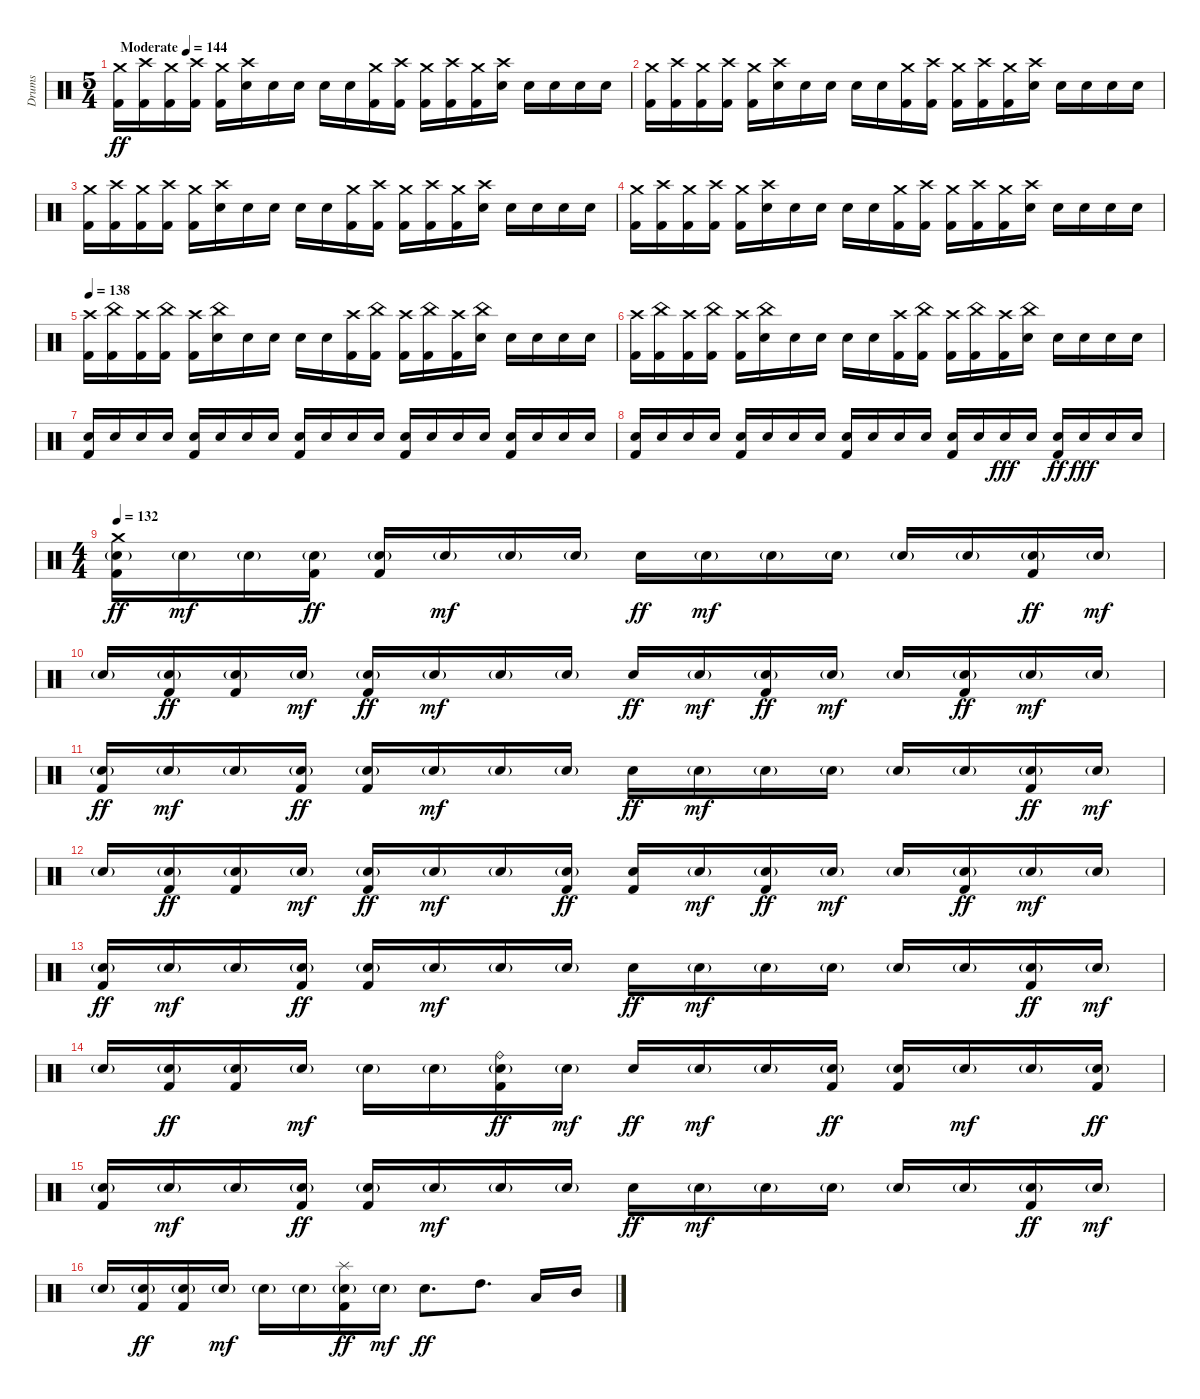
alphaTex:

\track ("Drums" "Drums") {instrument percussion}
\staff {score}
\articulation defaults
\ts (5 4)
\tempo (144 "Moderate")
\clef neutral
\ks c
("Crash medium (hit)" "Kick (hit) 2").16{dy ff} ("Crash high (hit)" "Kick (hit) 2").16 ("Crash medium (hit)" "Kick (hit) 2").16 ("Crash high (hit)" "Kick (hit) 2").16 ("Crash medium (hit)" "Kick (hit) 2").16 ("Crash high (hit)" "Electric Snare (hit)").16 "Electric Snare (hit)".16 "Electric Snare (hit)".16 "Electric Snare (hit)".16 "Electric Snare (hit)".16 ("Crash medium (hit)" "Kick (hit) 2").16 ("Crash high (hit)" "Kick (hit) 2").16 ("Crash medium (hit)" "Kick (hit) 2").16 ("Crash high (hit)" "Kick (hit) 2").16 ("Crash medium (hit)" "Kick (hit) 2").16 ("Crash high (hit)" "Electric Snare (hit)").16 "Electric Snare (hit)".16 "Electric Snare (hit)".16 "Electric Snare (hit)".16 "Electric Snare (hit)".16 |
("Crash medium (hit)" "Kick (hit) 2").16 ("Crash high (hit)" "Kick (hit) 2").16 ("Crash medium (hit)" "Kick (hit) 2").16 ("Crash high (hit)" "Kick (hit) 2").16 ("Crash medium (hit)" "Kick (hit) 2").16 ("Crash high (hit)" "Electric Snare (hit)").16 "Electric Snare (hit)".16 "Electric Snare (hit)".16 "Electric Snare (hit)".16 "Electric Snare (hit)".16 ("Crash medium (hit)" "Kick (hit) 2").16 ("Crash high (hit)" "Kick (hit) 2").16 ("Crash medium (hit)" "Kick (hit) 2").16 ("Crash high (hit)" "Kick (hit) 2").16 ("Crash medium (hit)" "Kick (hit) 2").16 ("Crash high (hit)" "Electric Snare (hit)").16 "Electric Snare (hit)".16 "Electric Snare (hit)".16 "Electric Snare (hit)".16 "Electric Snare (hit)".16 |
("Crash medium (hit)" "Kick (hit) 2").16 ("Crash high (hit)" "Kick (hit) 2").16 ("Crash medium (hit)" "Kick (hit) 2").16 ("Crash high (hit)" "Kick (hit) 2").16 ("Crash medium (hit)" "Kick (hit) 2").16 ("Crash high (hit)" "Electric Snare (hit)").16 "Electric Snare (hit)".16 "Electric Snare (hit)".16 "Electric Snare (hit)".16 "Electric Snare (hit)".16 ("Crash medium (hit)" "Kick (hit) 2").16 ("Crash high (hit)" "Kick (hit) 2").16 ("Crash medium (hit)" "Kick (hit) 2").16 ("Crash high (hit)" "Kick (hit) 2").16 ("Crash medium (hit)" "Kick (hit) 2").16 ("Crash high (hit)" "Electric Snare (hit)").16 "Electric Snare (hit)".16 "Electric Snare (hit)".16 "Electric Snare (hit)".16 "Electric Snare (hit)".16 |
("Crash medium (hit)" "Kick (hit) 2").16 ("Crash high (hit)" "Kick (hit) 2").16 ("Crash medium (hit)" "Kick (hit) 2").16 ("Crash high (hit)" "Kick (hit) 2").16 ("Crash medium (hit)" "Kick (hit) 2").16 ("Crash high (hit)" "Electric Snare (hit)").16 "Electric Snare (hit)".16 "Electric Snare (hit)".16 "Electric Snare (hit)".16 "Electric Snare (hit)".16 ("Crash medium (hit)" "Kick (hit) 2").16 ("Crash high (hit)" "Kick (hit) 2").16 ("Crash medium (hit)" "Kick (hit) 2").16 ("Crash high (hit)" "Kick (hit) 2").16 ("Crash medium (hit)" "Kick (hit) 2").16 ("Crash high (hit)" "Electric Snare (hit)").16 "Electric Snare (hit)".16 "Electric Snare (hit)".16 "Electric Snare (hit)".16 "Electric Snare (hit)".16 |
\tempo 138
("Crash high (hit)" "Kick (hit) 2").16 ("China (hit)" "Kick (hit) 2").16 ("Crash high (hit)" "Kick (hit) 2").16 ("China (hit)" "Kick (hit) 2").16 ("Crash high (hit)" "Kick (hit) 2").16 ("China (hit)" "Electric Snare (hit)").16 "Electric Snare (hit)".16 "Electric Snare (hit)".16 "Electric Snare (hit)".16 "Electric Snare (hit)".16 ("Crash high (hit)" "Kick (hit) 2").16 ("China (hit)" "Kick (hit) 2").16 ("Crash high (hit)" "Kick (hit) 2").16 ("China (hit)" "Kick (hit) 2").16 ("Crash high (hit)" "Kick (hit) 2").16 ("China (hit)" "Electric Snare (hit)").16 "Electric Snare (hit)".16 "Electric Snare (hit)".16 "Electric Snare (hit)".16 "Electric Snare (hit)".16 |
("Crash high (hit)" "Kick (hit) 2").16 ("China (hit)" "Kick (hit) 2").16 ("Crash high (hit)" "Kick (hit) 2").16 ("China (hit)" "Kick (hit) 2").16 ("Crash high (hit)" "Kick (hit) 2").16 ("China (hit)" "Electric Snare (hit)").16 "Electric Snare (hit)".16 "Electric Snare (hit)".16 "Electric Snare (hit)".16 "Electric Snare (hit)".16 ("Crash high (hit)" "Kick (hit) 2").16 ("China (hit)" "Kick (hit) 2").16 ("Crash high (hit)" "Kick (hit) 2").16 ("China (hit)" "Kick (hit) 2").16 ("Crash high (hit)" "Kick (hit) 2").16 ("China (hit)" "Electric Snare (hit)").16 "Electric Snare (hit)".16 "Electric Snare (hit)".16 "Electric Snare (hit)".16 "Electric Snare (hit)".16 |
("Electric Snare (hit)" "Kick (hit) 2").16{volume 5} "Electric Snare (hit)".16{volume 13} "Electric Snare (hit)".16 "Electric Snare (hit)".16 ("Electric Snare (hit)" "Kick (hit) 2").16 "Electric Snare (hit)".16 "Electric Snare (hit)".16 "Electric Snare (hit)".16 ("Electric Snare (hit)" "Kick (hit) 2").16 "Electric Snare (hit)".16 "Electric Snare (hit)".16 "Electric Snare (hit)".16 ("Electric Snare (hit)" "Kick (hit) 2").16 "Electric Snare (hit)".16 "Electric Snare (hit)".16 "Electric Snare (hit)".16 ("Electric Snare (hit)" "Kick (hit) 2").16 "Electric Snare (hit)".16 "Electric Snare (hit)".16 "Electric Snare (hit)".16 |
("Electric Snare (hit)" "Kick (hit) 2").16 "Electric Snare (hit)".16 "Electric Snare (hit)".16 "Electric Snare (hit)".16 ("Electric Snare (hit)" "Kick (hit) 2").16 "Electric Snare (hit)".16 "Electric Snare (hit)".16 "Electric Snare (hit)".16 ("Electric Snare (hit)" "Kick (hit) 2").16 "Electric Snare (hit)".16 "Electric Snare (hit)".16 "Electric Snare (hit)".16 ("Electric Snare (hit)" "Kick (hit) 2").16 "Electric Snare (hit)".16 "Electric Snare (hit)".16{dy fff} "Electric Snare (hit)".16 ("Electric Snare (hit)" "Kick (hit) 2").16{dy ff} "Electric Snare (hit)".16{dy fff} "Electric Snare (hit)".16 "Electric Snare (hit)".16 |
\ts (4 4)
\tempo 132
("Crash medium (hit)" "Electric Snare (hit)"{g} "Kick (hit) 2").16{dy ff} "Electric Snare (hit)"{g}.16{dy mf} "Electric Snare (hit)"{g}.16 ("Electric Snare (hit)"{g} "Kick (hit) 2").16{dy ff} ("Electric Snare (hit)"{g} "Kick (hit) 2").16 "Electric Snare (hit)"{g}.16{dy mf} "Electric Snare (hit)"{g}.16 "Electric Snare (hit)"{g}.16 "Electric Snare (hit)".16{dy ff} "Electric Snare (hit)"{g}.16{dy mf} "Electric Snare (hit)"{g}.16 "Electric Snare (hit)"{g}.16 "Electric Snare (hit)"{g}.16 "Electric Snare (hit)"{g}.16 ("Electric Snare (hit)"{g} "Kick (hit) 2").16{dy ff} "Electric Snare (hit)"{g}.16{dy mf} |
"Electric Snare (hit)"{g}.16 ("Electric Snare (hit)"{g} "Kick (hit) 2").16{dy ff} ("Electric Snare (hit)"{g} "Kick (hit) 2").16 "Electric Snare (hit)"{g}.16{dy mf} ("Electric Snare (hit)"{g} "Kick (hit) 2").16{dy ff} "Electric Snare (hit)"{g}.16{dy mf} "Electric Snare (hit)"{g}.16 "Electric Snare (hit)"{g}.16 "Electric Snare (hit)".16{dy ff} "Electric Snare (hit)"{g}.16{dy mf} ("Electric Snare (hit)"{g} "Kick (hit) 2").16{dy ff} "Electric Snare (hit)"{g}.16{dy mf} "Electric Snare (hit)"{g}.16 ("Electric Snare (hit)"{g} "Kick (hit) 2").16{dy ff} "Electric Snare (hit)"{g}.16{dy mf} "Electric Snare (hit)"{g}.16 |
("Electric Snare (hit)"{g} "Kick (hit) 2").16{dy ff} "Electric Snare (hit)"{g}.16{dy mf} "Electric Snare (hit)"{g}.16 ("Electric Snare (hit)"{g} "Kick (hit) 2").16{dy ff} ("Electric Snare (hit)"{g} "Kick (hit) 2").16 "Electric Snare (hit)"{g}.16{dy mf} "Electric Snare (hit)"{g}.16 "Electric Snare (hit)"{g}.16 "Electric Snare (hit)".16{dy ff} "Electric Snare (hit)"{g}.16{dy mf} "Electric Snare (hit)"{g}.16 "Electric Snare (hit)"{g}.16 "Electric Snare (hit)"{g}.16 "Electric Snare (hit)"{g}.16 ("Electric Snare (hit)"{g} "Kick (hit) 2").16{dy ff} "Electric Snare (hit)"{g}.16{dy mf} |
"Electric Snare (hit)"{g}.16 ("Electric Snare (hit)"{g} "Kick (hit) 2").16{dy ff} ("Electric Snare (hit)"{g} "Kick (hit) 2").16 "Electric Snare (hit)"{g}.16{dy mf} ("Electric Snare (hit)"{g} "Kick (hit) 2").16{dy ff} "Electric Snare (hit)"{g}.16{dy mf} "Electric Snare (hit)"{g}.16 ("Electric Snare (hit)"{g} "Kick (hit) 2").16{dy ff} ("Electric Snare (hit)" "Kick (hit) 2").16 "Electric Snare (hit)"{g}.16{dy mf} ("Electric Snare (hit)"{g} "Kick (hit) 2").16{dy ff} "Electric Snare (hit)"{g}.16{dy mf} "Electric Snare (hit)"{g}.16 ("Electric Snare (hit)"{g} "Kick (hit) 2").16{dy ff} "Electric Snare (hit)"{g}.16{dy mf} "Electric Snare (hit)"{g}.16 |
("Electric Snare (hit)"{g} "Kick (hit) 2").16{dy ff} "Electric Snare (hit)"{g}.16{dy mf} "Electric Snare (hit)"{g}.16 ("Electric Snare (hit)"{g} "Kick (hit) 2").16{dy ff} ("Electric Snare (hit)"{g} "Kick (hit) 2").16 "Electric Snare (hit)"{g}.16{dy mf} "Electric Snare (hit)"{g}.16 "Electric Snare (hit)"{g}.16 "Electric Snare (hit)".16{dy ff} "Electric Snare (hit)"{g}.16{dy mf} "Electric Snare (hit)"{g}.16 "Electric Snare (hit)"{g}.16 "Electric Snare (hit)"{g}.16 "Electric Snare (hit)"{g}.16 ("Electric Snare (hit)"{g} "Kick (hit) 2").16{dy ff} "Electric Snare (hit)"{g}.16{dy mf} |
"Electric Snare (hit)"{g}.16 ("Electric Snare (hit)"{g} "Kick (hit) 2").16{dy ff} ("Electric Snare (hit)"{g} "Kick (hit) 2").16 "Electric Snare (hit)"{g}.16{dy mf} "Electric Snare (hit)"{g}.16 "Electric Snare (hit)"{g}.16 ("Ride (bell)" "Electric Snare (hit)"{g} "Kick (hit) 2").16{dy ff} "Electric Snare (hit)"{g}.16{dy mf} "Electric Snare (hit)".16{dy ff} "Electric Snare (hit)"{g}.16{dy mf} "Electric Snare (hit)"{g}.16 ("Electric Snare (hit)"{g} "Kick (hit) 2").16{dy ff} ("Electric Snare (hit)"{g} "Kick (hit) 2").16 "Electric Snare (hit)"{g}.16{dy mf} "Electric Snare (hit)"{g}.16 ("Electric Snare (hit)"{g} "Kick (hit) 2").16{dy ff} |
("Electric Snare (hit)"{g} "Kick (hit) 2").16 "Electric Snare (hit)"{g}.16{dy mf} "Electric Snare (hit)"{g}.16 ("Electric Snare (hit)"{g} "Kick (hit) 2").16{dy ff} ("Electric Snare (hit)"{g} "Kick (hit) 2").16 "Electric Snare (hit)"{g}.16{dy mf} "Electric Snare (hit)"{g}.16 "Electric Snare (hit)"{g}.16 "Electric Snare (hit)".16{dy ff} "Electric Snare (hit)"{g}.16{dy mf} "Electric Snare (hit)"{g}.16 "Electric Snare (hit)"{g}.16 "Electric Snare (hit)"{g}.16 "Electric Snare (hit)"{g}.16 ("Electric Snare (hit)"{g} "Kick (hit) 2").16{dy ff} "Electric Snare (hit)"{g}.16{dy mf} |
"Electric Snare (hit)"{g}.16 ("Electric Snare (hit)"{g} "Kick (hit) 2").16{dy ff} ("Electric Snare (hit)"{g} "Kick (hit) 2").16 "Electric Snare (hit)"{g}.16{dy mf} "Electric Snare (hit)"{g}.16 "Electric Snare (hit)"{g}.16 ("Splash (hit)" "Electric Snare (hit)"{g} "Kick (hit) 2").16{dy ff} "Electric Snare (hit)"{g}.16{dy mf} "Electric Snare (hit)".8{d dy ff} "High Tom (hit)".8{d} "Low Tom (hit)".16 "Mid Tom (hit)".16
